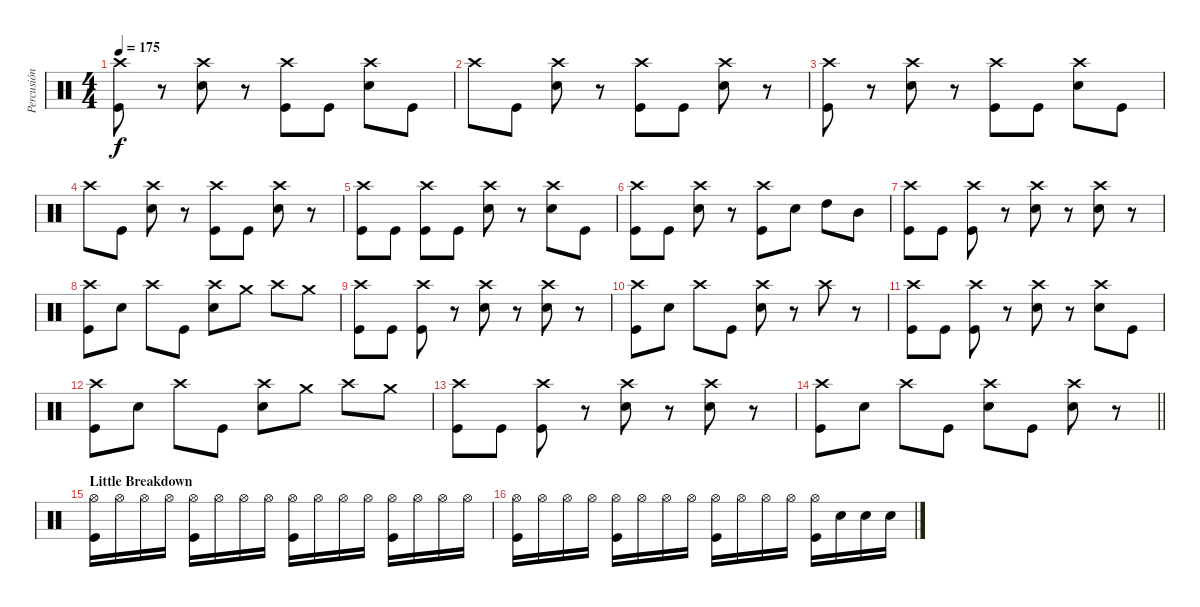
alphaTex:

\track ("Percusión" "Percusión") {instrument percussion}
\staff {score}
\articulation defaults
\ts (4 4)
\tempo 175
\clef neutral
\ks c
("Crash high (hit)" "Kick (hit)").8{dy f} r.8 ("Crash high (hit)" "Snare (hit) 2").8 r.8 ("Crash high (hit)" "Kick (hit)").8 "Kick (hit)".8 ("Crash high (hit)" "Snare (hit) 2").8 "Kick (hit)".8 |
"Crash high (hit)".8 "Kick (hit)".8 ("Crash high (hit)" "Snare (hit) 2").8 r.8 ("Crash high (hit)" "Kick (hit)").8 "Kick (hit)".8 ("Crash high (hit)" "Snare (hit) 2").8 r.8 |
("Crash high (hit)" "Kick (hit)").8 r.8 ("Crash high (hit)" "Snare (hit) 2").8 r.8 ("Crash high (hit)" "Kick (hit)").8 "Kick (hit)".8 ("Crash high (hit)" "Snare (hit) 2").8 "Kick (hit)".8 |
"Crash high (hit)".8 "Kick (hit)".8 ("Crash high (hit)" "Snare (hit) 2").8 r.8 ("Crash high (hit)" "Kick (hit)").8 "Kick (hit)".8 ("Crash high (hit)" "Snare (hit) 2").8 r.8 |
("Crash high (hit)" "Kick (hit)").8 "Kick (hit)".8 ("Crash high (hit)" "Kick (hit)").8 "Kick (hit)".8 ("Crash high (hit)" "Snare (hit) 2").8 r.8 ("Crash high (hit)" "Snare (hit) 2").8 "Kick (hit)".8 |
("Crash high (hit)" "Kick (hit)").8 "Kick (hit)".8 ("Crash high (hit)" "Snare (hit) 2").8 r.8 ("Crash high (hit)" "Kick (hit)").8 "Snare (hit) 2".8 "High Tom (hit)".8 "Mid Tom (hit)".8 |
("Crash high (hit)" "Kick (hit)").8 "Kick (hit)".8 ("Crash high (hit)" "Kick (hit)").8 r.8 ("Crash high (hit)" "Snare (hit) 2").8 r.8 ("Crash high (hit)" "Snare (hit) 2").8 r.8 |
("Crash high (hit)" "Kick (hit)").8 "Snare (hit) 2".8 "Crash high (hit)".8 "Kick (hit)".8 ("Crash high (hit)" "Snare (hit) 2").8 "Crash medium (hit)".8 "Crash high (hit)".8 "Crash medium (hit)".8 |
("Crash high (hit)" "Kick (hit)").8 "Kick (hit)".8 ("Crash high (hit)" "Kick (hit)").8 r.8 ("Crash high (hit)" "Snare (hit) 2").8 r.8 ("Crash high (hit)" "Snare (hit) 2").8 r.8 |
("Crash high (hit)" "Kick (hit)").8 "Snare (hit) 2".8 "Crash high (hit)".8 "Kick (hit)".8 ("Crash high (hit)" "Snare (hit) 2").8 r.8 "Crash high (hit)".8 r.8 |
("Crash high (hit)" "Kick (hit)").8 "Kick (hit)".8 ("Crash high (hit)" "Kick (hit)").8 r.8 ("Crash high (hit)" "Snare (hit) 2").8 r.8 ("Crash high (hit)" "Snare (hit) 2").8 "Kick (hit)".8 |
("Crash high (hit)" "Kick (hit)").8 "Snare (hit) 2".8 "Crash high (hit)".8 "Kick (hit)".8 ("Crash high (hit)" "Snare (hit) 2").8 "Crash medium (hit)".8 "Crash high (hit)".8 "Crash medium (hit)".8 |
("Crash high (hit)" "Kick (hit)").8 "Kick (hit)".8 ("Crash high (hit)" "Kick (hit)").8 r.8 ("Crash high (hit)" "Snare (hit) 2").8 r.8 ("Crash high (hit)" "Snare (hit) 2").8 r.8 |
\barLineRight lightlight
("Crash high (hit)" "Kick (hit)").8 "Snare (hit) 2".8 "Crash high (hit)".8 "Kick (hit)".8 ("Crash high (hit)" "Snare (hit) 2").8 "Kick (hit)".8 ("Crash high (hit)" "Snare (hit) 2").8 r.8 |
\section ("" "Little Breakdown")
("Hi-Hat (open)" "Kick (hit)").16 "Hi-Hat (open)".16 "Hi-Hat (open)".16 "Hi-Hat (open)".16 ("Hi-Hat (open)" "Kick (hit)").16 "Hi-Hat (open)".16 "Hi-Hat (open)".16 "Hi-Hat (open)".16 ("Hi-Hat (open)" "Kick (hit)").16 "Hi-Hat (open)".16 "Hi-Hat (open)".16 "Hi-Hat (open)".16 ("Hi-Hat (open)" "Kick (hit)").16 "Hi-Hat (open)".16 "Hi-Hat (open)".16 "Hi-Hat (open)".16 |
("Hi-Hat (open)" "Kick (hit)").16 "Hi-Hat (open)".16 "Hi-Hat (open)".16 "Hi-Hat (open)".16 ("Hi-Hat (open)" "Kick (hit)").16 "Hi-Hat (open)".16 "Hi-Hat (open)".16 "Hi-Hat (open)".16 ("Hi-Hat (open)" "Kick (hit)").16 "Hi-Hat (open)".16 "Hi-Hat (open)".16 "Hi-Hat (open)".16 ("Hi-Hat (open)" "Kick (hit)").16 "Snare (hit) 2".16 "Snare (hit) 2".16 "Snare (hit) 2".16
